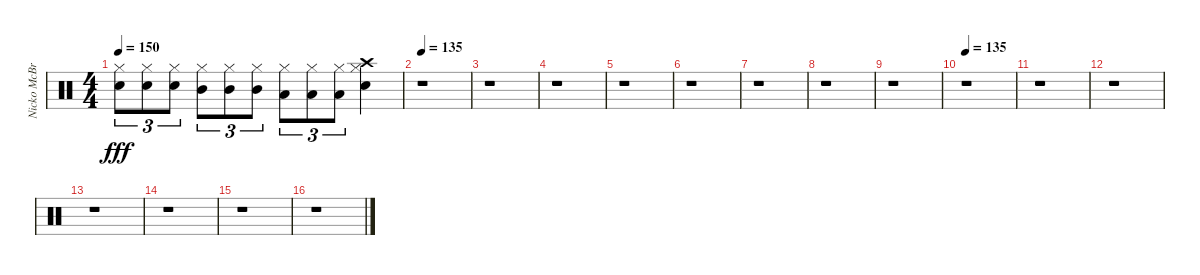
\track ("Nicko McBrain" "Nicko McBr") {instrument percussion}
\staff {score}
\articulation defaults
\ts (4 4)
\tempo 150
\clef neutral
\ks c
("Snare (hit) 2" "Hi-Hat (closed)").8{tu (3 2) dy fff} ("Snare (hit) 2" "Hi-Hat (closed)").8{tu (3 2)} ("Snare (hit) 2" "Hi-Hat (closed)").8{tu (3 2)} ("Mid Tom (hit)" "Hi-Hat (closed)").8{tu (3 2)} ("Mid Tom (hit)" "Hi-Hat (closed)").8{tu (3 2)} ("Mid Tom (hit)" "Hi-Hat (closed)").8{tu (3 2)} ("Low Tom (hit)" "Hi-Hat (closed)").8{tu (3 2)} ("Low Tom (hit)" "Hi-Hat (closed)").8{tu (3 2)} ("Low Tom (hit)" "Hi-Hat (closed)").8{tu (3 2)} ("Hi-Hat (closed)" "Snare (hit) 2" "Crash high (hit)").4 |
\tempo 135
r.1 |
r.1 |
r.1 |
r.1 |
r.1 |
r.1 |
r.1 |
r.1 |
\tempo 135
r.1 |
r.1 |
r.1 |
r.1 |
r.1 |
r.1 |
r.1
